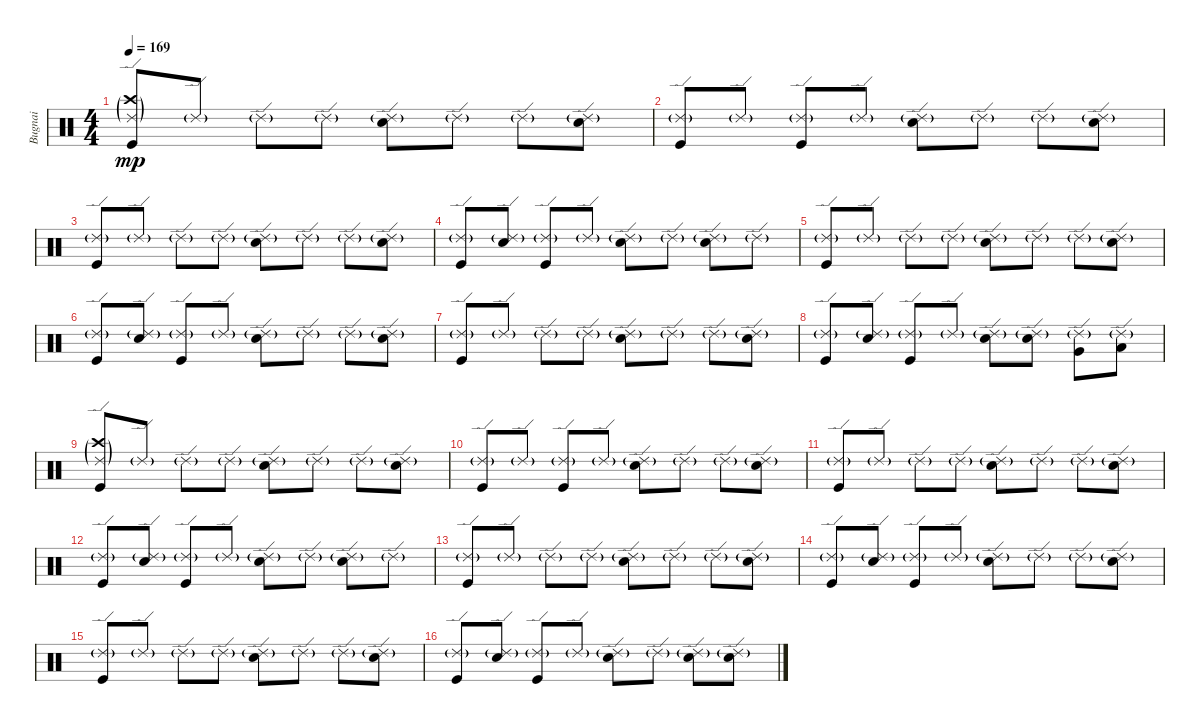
\track ("Bugnai" "Bugnai") {instrument percussion}
\staff {score}
\articulation defaults
\ts (4 4)
\tempo 169
\clef neutral
\ks c
("Ride (edge) 2"{g} "Crash high (hit)"{g} "Kick (hit)").8{dy mp} "Ride (edge) 2"{g}.8 "Ride (edge) 2"{g}.8 "Ride (edge) 2"{g}.8 ("Ride (edge) 2"{g} "Snare (hit) 2").8 "Ride (edge) 2"{g}.8 "Ride (edge) 2"{g}.8 ("Ride (edge) 2"{g} "Snare (hit) 2").8 |
("Ride (edge) 2"{g} "Kick (hit)").8 "Ride (edge) 2"{g}.8 ("Ride (edge) 2"{g} "Kick (hit)").8 "Ride (edge) 2"{g}.8 ("Ride (edge) 2"{g} "Snare (hit) 2").8 "Ride (edge) 2"{g}.8 "Ride (edge) 2"{g}.8 ("Ride (edge) 2"{g} "Snare (hit) 2").8 |
("Ride (edge) 2"{g} "Kick (hit)").8 "Ride (edge) 2"{g}.8 "Ride (edge) 2"{g}.8 "Ride (edge) 2"{g}.8 ("Ride (edge) 2"{g} "Snare (hit) 2").8 "Ride (edge) 2"{g}.8 "Ride (edge) 2"{g}.8 ("Ride (edge) 2"{g} "Snare (hit) 2").8 |
("Ride (edge) 2"{g} "Kick (hit)").8 ("Ride (edge) 2"{g} "Snare (hit) 2").8 ("Ride (edge) 2"{g} "Kick (hit)").8 "Ride (edge) 2"{g}.8 ("Ride (edge) 2"{g} "Snare (hit) 2").8 "Ride (edge) 2"{g}.8 ("Ride (edge) 2"{g} "Snare (hit) 2").8 "Ride (edge) 2"{g}.8 |
("Ride (edge) 2"{g} "Kick (hit)").8 "Ride (edge) 2"{g}.8 "Ride (edge) 2"{g}.8 "Ride (edge) 2"{g}.8 ("Ride (edge) 2"{g} "Snare (hit) 2").8 "Ride (edge) 2"{g}.8 "Ride (edge) 2"{g}.8 ("Ride (edge) 2"{g} "Snare (hit) 2").8 |
("Ride (edge) 2"{g} "Kick (hit)").8 ("Ride (edge) 2"{g} "Snare (hit) 2").8 ("Ride (edge) 2"{g} "Kick (hit)").8 "Ride (edge) 2"{g}.8 ("Ride (edge) 2"{g} "Snare (hit) 2").8 "Ride (edge) 2"{g}.8 "Ride (edge) 2"{g}.8 ("Ride (edge) 2"{g} "Snare (hit) 2").8 |
("Ride (edge) 2"{g} "Kick (hit)").8 "Ride (edge) 2"{g}.8 "Ride (edge) 2"{g}.8 "Ride (edge) 2"{g}.8 ("Ride (edge) 2"{g} "Snare (hit) 2").8 "Ride (edge) 2"{g}.8 "Ride (edge) 2"{g}.8 ("Ride (edge) 2"{g} "Snare (hit) 2").8 |
("Ride (edge) 2"{g} "Kick (hit)").8 ("Ride (edge) 2"{g} "Snare (hit) 2").8 ("Ride (edge) 2"{g} "Kick (hit)").8 "Ride (edge) 2"{g}.8 ("Ride (edge) 2"{g} "Snare (hit) 2").8 ("Ride (edge) 2"{g} "Snare (hit) 2").8 ("Ride (edge) 2"{g} "Very Low Tom (hit)").8 ("Ride (edge) 2"{g} "Low Floor Tom (hit)").8 |
("Ride (edge) 2"{g} "Crash high (hit)"{g} "Kick (hit)").8 "Ride (edge) 2"{g}.8 "Ride (edge) 2"{g}.8 "Ride (edge) 2"{g}.8 ("Ride (edge) 2"{g} "Snare (hit) 2").8 "Ride (edge) 2"{g}.8 "Ride (edge) 2"{g}.8 ("Ride (edge) 2"{g} "Snare (hit) 2").8 |
("Ride (edge) 2"{g} "Kick (hit)").8 "Ride (edge) 2"{g}.8 ("Ride (edge) 2"{g} "Kick (hit)").8 "Ride (edge) 2"{g}.8 ("Ride (edge) 2"{g} "Snare (hit) 2").8 "Ride (edge) 2"{g}.8 "Ride (edge) 2"{g}.8 ("Ride (edge) 2"{g} "Snare (hit) 2").8 |
("Ride (edge) 2"{g} "Kick (hit)").8 "Ride (edge) 2"{g}.8 "Ride (edge) 2"{g}.8 "Ride (edge) 2"{g}.8 ("Ride (edge) 2"{g} "Snare (hit) 2").8 "Ride (edge) 2"{g}.8 "Ride (edge) 2"{g}.8 ("Ride (edge) 2"{g} "Snare (hit) 2").8 |
("Ride (edge) 2"{g} "Kick (hit)").8 ("Ride (edge) 2"{g} "Snare (hit) 2").8 ("Ride (edge) 2"{g} "Kick (hit)").8 "Ride (edge) 2"{g}.8 ("Ride (edge) 2"{g} "Snare (hit) 2").8 "Ride (edge) 2"{g}.8 ("Ride (edge) 2"{g} "Snare (hit) 2").8 "Ride (edge) 2"{g}.8 |
("Ride (edge) 2"{g} "Kick (hit)").8 "Ride (edge) 2"{g}.8 "Ride (edge) 2"{g}.8 "Ride (edge) 2"{g}.8 ("Ride (edge) 2"{g} "Snare (hit) 2").8 "Ride (edge) 2"{g}.8 "Ride (edge) 2"{g}.8 ("Ride (edge) 2"{g} "Snare (hit) 2").8 |
("Ride (edge) 2"{g} "Kick (hit)").8 ("Ride (edge) 2"{g} "Snare (hit) 2").8 ("Ride (edge) 2"{g} "Kick (hit)").8 "Ride (edge) 2"{g}.8 ("Ride (edge) 2"{g} "Snare (hit) 2").8 "Ride (edge) 2"{g}.8 "Ride (edge) 2"{g}.8 ("Ride (edge) 2"{g} "Snare (hit) 2").8 |
("Ride (edge) 2"{g} "Kick (hit)").8 "Ride (edge) 2"{g}.8 "Ride (edge) 2"{g}.8 "Ride (edge) 2"{g}.8 ("Ride (edge) 2"{g} "Snare (hit) 2").8 "Ride (edge) 2"{g}.8 "Ride (edge) 2"{g}.8 ("Ride (edge) 2"{g} "Snare (hit) 2").8 |
("Ride (edge) 2"{g} "Kick (hit)").8 ("Ride (edge) 2"{g} "Snare (hit) 2").8 ("Ride (edge) 2"{g} "Kick (hit)").8 "Ride (edge) 2"{g}.8 ("Ride (edge) 2"{g} "Snare (hit) 2").8 "Ride (edge) 2"{g}.8 ("Ride (edge) 2"{g} "Snare (hit) 2").8 ("Ride (edge) 2"{g} "Snare (hit) 2").8
